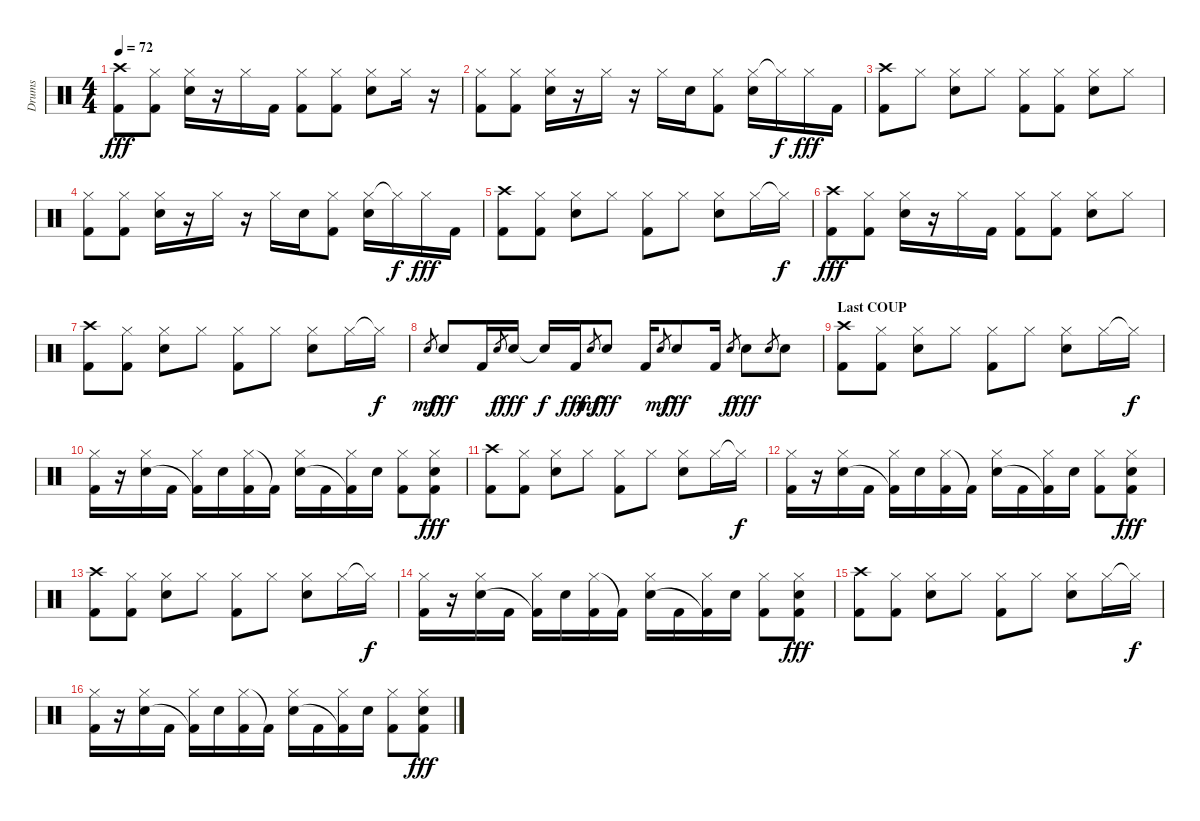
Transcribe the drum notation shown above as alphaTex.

\track ("Drums" "Drums") {instrument percussion}
\staff {score}
\articulation defaults
\ts (4 4)
\tempo 72
\clef neutral
\ks c
("Crash high (hit)" "Kick (hit) 2").8{dy fff} ("Hi-Hat (closed)" "Kick (hit) 2").8 ("Hi-Hat (closed)" "Snare (hit) 2").16 r.16 "Hi-Hat (closed)".16 "Kick (hit) 2".16 ("Hi-Hat (closed)" "Kick (hit) 2").8 ("Hi-Hat (closed)" "Kick (hit) 2").8 ("Hi-Hat (closed)" "Snare (hit) 2").8 "Hi-Hat (closed)".16 r.16 |
("Hi-Hat (closed)" "Kick (hit) 2").8 ("Hi-Hat (closed)" "Kick (hit) 2").8 ("Hi-Hat (closed)" "Snare (hit) 2").16 r.16 "Hi-Hat (closed)".16 r.16 "Hi-Hat (closed)".16 "Snare (hit) 2".16 ("Hi-Hat (closed)" "Kick (hit) 2").8 ("Hi-Hat (closed)" "Snare (hit) 2").16 "Hi-Hat (closed)"{t}.16{dy f} "Hi-Hat (closed)".16{dy fff} "Kick (hit) 2".16 |
("Crash high (hit)" "Kick (hit) 2").8 "Hi-Hat (closed)".8 ("Hi-Hat (closed)" "Snare (hit) 2").8 "Hi-Hat (closed)".8 ("Hi-Hat (closed)" "Kick (hit) 2").8 ("Hi-Hat (closed)" "Kick (hit) 2").8 ("Hi-Hat (closed)" "Snare (hit) 2").8 "Hi-Hat (closed)".8 |
("Hi-Hat (closed)" "Kick (hit) 2").8 ("Hi-Hat (closed)" "Kick (hit) 2").8 ("Hi-Hat (closed)" "Snare (hit) 2").16 r.16 "Hi-Hat (closed)".16 r.16 "Hi-Hat (closed)".16 "Snare (hit) 2".16 ("Hi-Hat (closed)" "Kick (hit) 2").8 ("Hi-Hat (closed)" "Snare (hit) 2").16 "Hi-Hat (closed)"{t}.16{dy f} "Hi-Hat (closed)".16{dy fff} "Kick (hit) 2".16 |
("Crash high (hit)" "Kick (hit) 2").8 ("Hi-Hat (closed)" "Kick (hit) 2").8 ("Hi-Hat (closed)" "Snare (hit) 2").8 "Hi-Hat (closed)".8 ("Hi-Hat (closed)" "Kick (hit) 2").8 "Hi-Hat (closed)".8 ("Hi-Hat (closed)" "Snare (hit) 2").8 "Hi-Hat (closed)".16 "Hi-Hat (closed)"{t}.16{dy f} |
("Crash high (hit)" "Kick (hit) 2").8{dy fff} ("Hi-Hat (closed)" "Kick (hit) 2").8 ("Hi-Hat (closed)" "Snare (hit) 2").16 r.16 "Hi-Hat (closed)".16 "Kick (hit) 2".16 ("Hi-Hat (closed)" "Kick (hit) 2").8 ("Hi-Hat (closed)" "Kick (hit) 2").8 ("Hi-Hat (closed)" "Snare (hit) 2").8 "Hi-Hat (closed)".8 |
("Crash high (hit)" "Kick (hit) 2").8 ("Hi-Hat (closed)" "Kick (hit) 2").8 ("Hi-Hat (closed)" "Snare (hit) 2").8 "Hi-Hat (closed)".8 ("Hi-Hat (closed)" "Kick (hit) 2").8 "Hi-Hat (closed)".8 ("Hi-Hat (closed)" "Snare (hit) 2").8 "Hi-Hat (closed)".16 "Hi-Hat (closed)"{t}.16{dy f} |
"Snare (hit) 2".8{gr dy mf} "Snare (hit) 2".8{dy fff} "Kick (hit) 2".16 "Snare (hit) 2".8{gr dy f} "Snare (hit) 2".16{dy fff} "Snare (hit) 2"{t}.16{dy f} "Kick (hit) 2".16{dy fff} "Snare (hit) 2".8{gr dy mf} "Snare (hit) 2".8{dy fff} "Kick (hit) 2".16 "Snare (hit) 2".8{gr dy mf} "Snare (hit) 2".8{dy fff} "Kick (hit) 2".16 "Snare (hit) 2".8{gr dy f} "Snare (hit) 2".8{dy fff} "Snare (hit) 2".8{gr} "Snare (hit) 2".8 |
\section ("" "Last COUP")
("Crash high (hit)" "Kick (hit) 2").8 ("Hi-Hat (closed)" "Kick (hit) 2").8 ("Hi-Hat (closed)" "Snare (hit) 2").8 "Hi-Hat (closed)".8 ("Hi-Hat (closed)" "Kick (hit) 2").8 "Hi-Hat (closed)".8 ("Hi-Hat (closed)" "Snare (hit) 2").8 "Hi-Hat (closed)".16 "Hi-Hat (closed)"{t}.16{dy f} |
("Hi-Hat (closed)" "Kick (hit) 2").16 r.16 ("Hi-Hat (closed)" "Snare (hit) 2").16 "Kick (hit) 2".16 ("Hi-Hat (closed)" "Kick (hit) 2"{t}).16 "Snare (hit) 2".16 ("Hi-Hat (closed)" "Kick (hit) 2").16 "Kick (hit) 2"{t}.16 ("Hi-Hat (closed)" "Snare (hit) 2").16 "Kick (hit) 2".16 ("Hi-Hat (closed)" "Kick (hit) 2"{t}).16 "Snare (hit) 2".16 ("Hi-Hat (closed)" "Kick (hit) 2").8 ("Hi-Hat (closed)" "Snare (hit) 2" "Kick (hit) 2").8{dy fff} |
("Crash high (hit)" "Kick (hit) 2").8 ("Hi-Hat (closed)" "Kick (hit) 2").8 ("Hi-Hat (closed)" "Snare (hit) 2").8 "Hi-Hat (closed)".8 ("Hi-Hat (closed)" "Kick (hit) 2").8 "Hi-Hat (closed)".8 ("Hi-Hat (closed)" "Snare (hit) 2").8 "Hi-Hat (closed)".16 "Hi-Hat (closed)"{t}.16{dy f} |
("Hi-Hat (closed)" "Kick (hit) 2").16 r.16 ("Hi-Hat (closed)" "Snare (hit) 2").16 "Kick (hit) 2".16 ("Hi-Hat (closed)" "Kick (hit) 2"{t}).16 "Snare (hit) 2".16 ("Hi-Hat (closed)" "Kick (hit) 2").16 "Kick (hit) 2"{t}.16 ("Hi-Hat (closed)" "Snare (hit) 2").16 "Kick (hit) 2".16 ("Hi-Hat (closed)" "Kick (hit) 2"{t}).16 "Snare (hit) 2".16 ("Hi-Hat (closed)" "Kick (hit) 2").8 ("Hi-Hat (closed)" "Snare (hit) 2" "Kick (hit) 2").8{dy fff} |
("Crash high (hit)" "Kick (hit) 2").8 ("Hi-Hat (closed)" "Kick (hit) 2").8 ("Hi-Hat (closed)" "Snare (hit) 2").8 "Hi-Hat (closed)".8 ("Hi-Hat (closed)" "Kick (hit) 2").8 "Hi-Hat (closed)".8 ("Hi-Hat (closed)" "Snare (hit) 2").8 "Hi-Hat (closed)".16 "Hi-Hat (closed)"{t}.16{dy f} |
("Hi-Hat (closed)" "Kick (hit) 2").16 r.16 ("Hi-Hat (closed)" "Snare (hit) 2").16 "Kick (hit) 2".16 ("Hi-Hat (closed)" "Kick (hit) 2"{t}).16 "Snare (hit) 2".16 ("Hi-Hat (closed)" "Kick (hit) 2").16 "Kick (hit) 2"{t}.16 ("Hi-Hat (closed)" "Snare (hit) 2").16 "Kick (hit) 2".16 ("Hi-Hat (closed)" "Kick (hit) 2"{t}).16 "Snare (hit) 2".16 ("Hi-Hat (closed)" "Kick (hit) 2").8 ("Hi-Hat (closed)" "Snare (hit) 2" "Kick (hit) 2").8{dy fff} |
("Crash high (hit)" "Kick (hit) 2").8 ("Hi-Hat (closed)" "Kick (hit) 2").8 ("Hi-Hat (closed)" "Snare (hit) 2").8 "Hi-Hat (closed)".8 ("Hi-Hat (closed)" "Kick (hit) 2").8 "Hi-Hat (closed)".8 ("Hi-Hat (closed)" "Snare (hit) 2").8 "Hi-Hat (closed)".16 "Hi-Hat (closed)"{t}.16{dy f} |
("Hi-Hat (closed)" "Kick (hit) 2").16 r.16 ("Hi-Hat (closed)" "Snare (hit) 2").16 "Kick (hit) 2".16 ("Hi-Hat (closed)" "Kick (hit) 2"{t}).16 "Snare (hit) 2".16 ("Hi-Hat (closed)" "Kick (hit) 2").16 "Kick (hit) 2"{t}.16 ("Hi-Hat (closed)" "Snare (hit) 2").16 "Kick (hit) 2".16 ("Hi-Hat (closed)" "Kick (hit) 2"{t}).16 "Snare (hit) 2".16 ("Hi-Hat (closed)" "Kick (hit) 2").8 ("Hi-Hat (closed)" "Snare (hit) 2" "Kick (hit) 2").8{dy fff}
